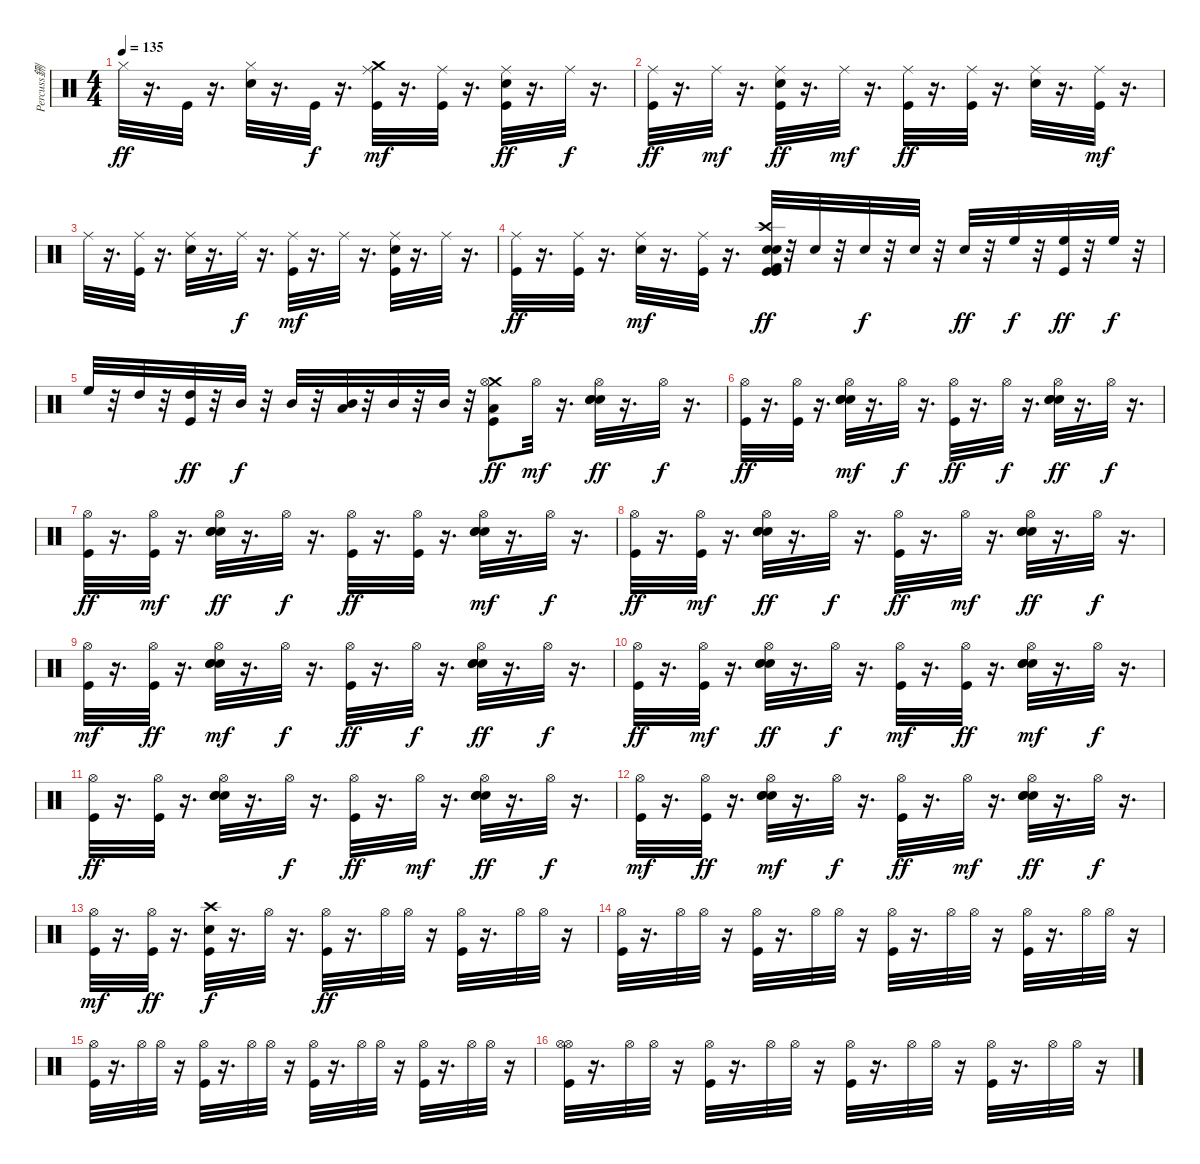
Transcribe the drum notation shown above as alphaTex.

\track ("Percuss鉶" "Percuss鉶") {instrument percussion}
\staff {score}
\articulation defaults
\ts (4 4)
\tempo 135
\clef neutral
\ks c "Hi-Hat (closed)".32{dy ff}
r.16{d} "Kick (hit)".32 r.16{d} ("Hi-Hat (closed)" "Electric Snare (hit)").32 r.16{d} "Kick (hit)".32{dy f} r.16{d} ("Crash medium (hit)" "Kick (hit)" "Ride (middle)").32{dy mf} r.16{d} ("Kick (hit)" "Ride (middle)").32 r.16{d} ("Ride (middle)" "Electric Snare (hit)" "Kick (hit)").32{dy ff} r.16{d} "Ride (middle)".32{dy f} r.16{d} |
("Ride (middle)" "Kick (hit)").32{dy ff} r.16{d} "Ride (middle)".32{dy mf} r.16{d} ("Ride (middle)" "Electric Snare (hit)" "Kick (hit)").32{dy ff} r.16{d} "Ride (middle)".32{dy mf} r.16{d} ("Kick (hit)" "Ride (middle)").32{dy ff} r.16{d} ("Ride (middle)" "Kick (hit)").32 r.16{d} ("Ride (middle)" "Electric Snare (hit)").32 r.16{d} ("Kick (hit)" "Ride (middle)").32{dy mf} r.16{d} |
"Ride (middle)".32 r.16{d} ("Kick (hit)" "Ride (middle)").32 r.16{d} ("Electric Snare (hit)" "Ride (middle)").32 r.16{d} "Ride (middle)".32{dy f} r.16{d} ("Kick (hit)" "Ride (middle)").32{dy mf} r.16{d} "Ride (middle)".32 r.16{d} ("Electric Snare (hit)" "Kick (hit)" "Ride (middle)").32 r.16{d} "Ride (middle)".32 r.16{d} |
("Ride (middle)" "Kick (hit)").32{dy ff} r.16{d} ("Ride (middle)" "Kick (hit)").32 r.16{d} ("Electric Snare (hit)" "Ride (middle)").32{dy mf} r.16{d} ("Kick (hit)" "Ride (middle)").32 r.16{d} ("Crash high (hit)" "Electric Snare (hit)" "Electric Snare (hit)" "Kick (hit)" "Kick (hit)" "Kick (hit) 2").32{dy ff} r.32 "Electric Snare (hit)".32 r.32 "Electric Snare (hit)".32{dy f} r.32 "Electric Snare (hit)".32 r.32 "Electric Snare (hit)".32{dy ff} r.32 "High Floor Tom (hit)".32{dy f} r.32 ("High Floor Tom (hit)" "Kick (hit)").32{dy ff} r.32 "High Floor Tom (hit)".32{dy f} r.32 |
"High Floor Tom (hit)".32 r.32 "High Tom (hit)".32 r.32 ("High Tom (hit)" "Kick (hit)").32{dy ff} r.32 "Mid Tom (hit)".32{dy f} r.32 "Mid Tom (hit)".32 r.32 ("Mid Tom (hit)" "Low Tom (hit)").32 r.32 "Mid Tom (hit)".32 r.32 "Mid Tom (hit)".32 r.32 ("Low Floor Tom (hit)" "Crash medium (hit)" "Hi-Hat (open)" "Kick (hit)").8{dy ff} "Hi-Hat (open)".32{dy mf} r.16{d} ("Hand Clap (hit)" "Snare (hit) 2" "Electric Snare (hit)" "Hi-Hat (open)").32{dy ff} r.16{d} "Hi-Hat (open)".32{dy f} r.16{d} |
("Hi-Hat (open)" "Kick (hit)").32{dy ff} r.16{d} ("Kick (hit)" "Hi-Hat (open)").32 r.16{d} ("Hi-Hat (open)" "Electric Snare (hit)" "Snare (hit) 2" "Hand Clap (hit)").32{dy mf} r.16{d} "Hi-Hat (open)".32{dy f} r.16{d} ("Hi-Hat (open)" "Kick (hit)").32{dy ff} r.16{d} "Hi-Hat (open)".32{dy f} r.16{d} ("Hand Clap (hit)" "Hi-Hat (open)" "Electric Snare (hit)" "Snare (hit) 2").32{dy ff} r.16{d} "Hi-Hat (open)".32{dy f} r.16{d} |
("Hi-Hat (open)" "Kick (hit)").32{dy ff} r.16{d} ("Kick (hit)" "Hi-Hat (open)").32{dy mf} r.16{d} ("Hand Clap (hit)" "Snare (hit) 2" "Electric Snare (hit)" "Hi-Hat (open)").32{dy ff} r.16{d} "Hi-Hat (open)".32{dy f} r.16{d} ("Hi-Hat (open)" "Kick (hit)").32{dy ff} r.16{d} ("Hi-Hat (open)" "Kick (hit)").32 r.16{d} ("Electric Snare (hit)" "Hi-Hat (open)" "Snare (hit) 2" "Hand Clap (hit)").32{dy mf} r.16{d} "Hi-Hat (open)".32{dy f} r.16{d} |
("Hi-Hat (open)" "Kick (hit)").32{dy ff} r.16{d} ("Kick (hit)" "Hi-Hat (open)").32{dy mf} r.16{d} ("Hand Clap (hit)" "Electric Snare (hit)" "Hi-Hat (open)" "Snare (hit) 2").32{dy ff} r.16{d} "Hi-Hat (open)".32{dy f} r.16{d} ("Kick (hit)" "Hi-Hat (open)").32{dy ff} r.16{d} "Hi-Hat (open)".32{dy mf} r.16{d} ("Hand Clap (hit)" "Snare (hit) 2" "Electric Snare (hit)" "Hi-Hat (open)").32{dy ff} r.16{d} "Hi-Hat (open)".32{dy f} r.16{d} |
("Kick (hit)" "Hi-Hat (open)").32{dy mf} r.16{d} ("Kick (hit)" "Hi-Hat (open)").32{dy ff} r.16{d} ("Electric Snare (hit)" "Hi-Hat (open)" "Snare (hit) 2" "Hand Clap (hit)").32{dy mf} r.16{d} "Hi-Hat (open)".32{dy f} r.16{d} ("Kick (hit)" "Hi-Hat (open)").32{dy ff} r.16{d} "Hi-Hat (open)".32{dy f} r.16{d} ("Hand Clap (hit)" "Electric Snare (hit)" "Hi-Hat (open)" "Snare (hit) 2").32{dy ff} r.16{d} "Hi-Hat (open)".32{dy f} r.16{d} |
("Kick (hit)" "Hi-Hat (open)").32{dy ff} r.16{d} ("Kick (hit)" "Hi-Hat (open)").32{dy mf} r.16{d} ("Hand Clap (hit)" "Snare (hit) 2" "Electric Snare (hit)" "Hi-Hat (open)").32{dy ff} r.16{d} "Hi-Hat (open)".32{dy f} r.16{d} ("Kick (hit)" "Hi-Hat (open)").32{dy mf} r.16{d} ("Hi-Hat (open)" "Kick (hit)").32{dy ff} r.16{d} ("Electric Snare (hit)" "Hi-Hat (open)" "Snare (hit) 2" "Hand Clap (hit)").32{dy mf} r.16{d} "Hi-Hat (open)".32{dy f} r.16{d} |
("Hi-Hat (open)" "Kick (hit)").32{dy ff} r.16{d} ("Hi-Hat (open)" "Kick (hit)").32 r.16{d} ("Hand Clap (hit)" "Electric Snare (hit)" "Hi-Hat (open)" "Snare (hit) 2").32 r.16{d} "Hi-Hat (open)".32{dy f} r.16{d} ("Hi-Hat (open)" "Kick (hit)").32{dy ff} r.16{d} "Hi-Hat (open)".32{dy mf} r.16{d} ("Hand Clap (hit)" "Snare (hit) 2" "Electric Snare (hit)" "Hi-Hat (open)").32{dy ff} r.16{d} "Hi-Hat (open)".32{dy f} r.16{d} |
("Kick (hit)" "Hi-Hat (open)").32{dy mf} r.16{d} ("Hi-Hat (open)" "Kick (hit)").32{dy ff} r.16{d} ("Electric Snare (hit)" "Hi-Hat (open)" "Snare (hit) 2" "Hand Clap (hit)").32{dy mf} r.16{d} "Hi-Hat (open)".32{dy f} r.16{d} ("Kick (hit)" "Hi-Hat (open)").32{dy ff} r.16{d} "Hi-Hat (open)".32{dy mf} r.16{d} ("Hi-Hat (open)" "Hand Clap (hit)" "Electric Snare (hit)" "Snare (hit) 2").32{dy ff} r.16{d} "Hi-Hat (open)".32{dy f} r.16{d} |
("Kick (hit)" "Hi-Hat (open)").32{dy mf} r.16{d} ("Hi-Hat (open)" "Kick (hit)").32{dy ff} r.16{d} ("Kick (hit)" "Crash high (hit)" "Snare (hit) 2").32{dy f} r.16{d} "Hi-Hat (open)".32 r.16{d} ("Kick (hit)" "Hi-Hat (open)").32{dy ff} r.16{d} "Hi-Hat (open)".32 "Hi-Hat (open)".32 r.16 ("Kick (hit)" "Hi-Hat (open)").32 r.16{d} "Hi-Hat (open)".32 "Hi-Hat (open)".32 r.16 |
("Hi-Hat (open)" "Kick (hit)").32 r.16{d} "Hi-Hat (open)".32 "Hi-Hat (open)".32 r.16 ("Hi-Hat (open)" "Kick (hit)").32 r.16{d} "Hi-Hat (open)".32 "Hi-Hat (open)".32 r.16 ("Kick (hit)" "Hi-Hat (open)").32 r.16{d} "Hi-Hat (open)".32 "Hi-Hat (open)".32 r.16 ("Hi-Hat (open)" "Kick (hit)").32 r.16{d} "Hi-Hat (open)".32 "Hi-Hat (open)".32 r.16 |
("Hi-Hat (open)" "Kick (hit)").32 r.16{d} "Hi-Hat (open)".32 "Hi-Hat (open)".32 r.16 ("Hi-Hat (open)" "Kick (hit)").32 r.16{d} "Hi-Hat (open)".32 "Hi-Hat (open)".32 r.16 ("Hi-Hat (open)" "Kick (hit)").32 r.16{d} "Hi-Hat (open)".32 "Hi-Hat (open)".32 r.16 ("Hi-Hat (open)" "Kick (hit)").32 r.16{d} "Hi-Hat (open)".32 "Hi-Hat (open)".32 r.16 |
("Kick (hit)" "Hi-Hat (open)" "Hi-Hat (open)").32 r.16{d} "Hi-Hat (open)".32 "Hi-Hat (open)".32 r.16 ("Kick (hit)" "Hi-Hat (open)").32 r.16{d} "Hi-Hat (open)".32 "Hi-Hat (open)".32 r.16 ("Kick (hit)" "Hi-Hat (open)").32 r.16{d} "Hi-Hat (open)".32 "Hi-Hat (open)".32 r.16 ("Kick (hit)" "Hi-Hat (open)").32 r.16{d} "Hi-Hat (open)".32 "Hi-Hat (open)".32 r.16
